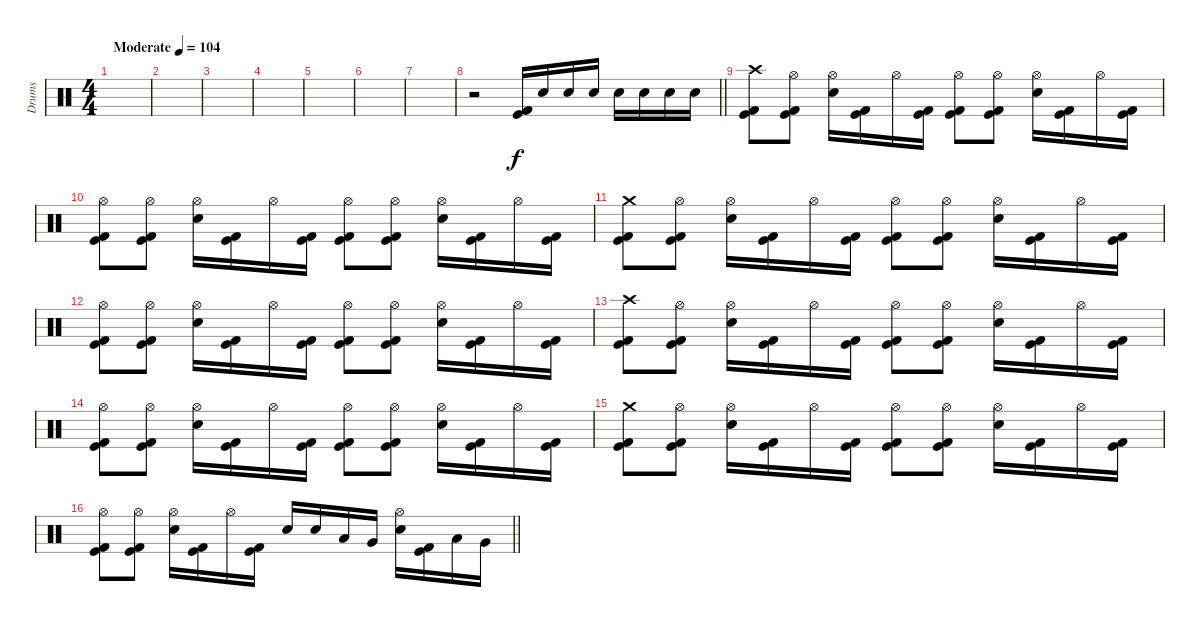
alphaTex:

\track ("Drums" "Drums") {instrument percussion}
\staff {score}
\articulation defaults
\ts (4 4)
\tempo (104 "Moderate")
\clef neutral
\ks c
|
|
|
|
|
|
|
\barLineRight lightlight
r.2 ("Kick (hit)" "Kick (hit) 2").16 "Electric Snare (hit)".16 "Electric Snare (hit)".16 "Electric Snare (hit)".16 "Electric Snare (hit)".16 "Electric Snare (hit)".16 "Electric Snare (hit)".16 "Electric Snare (hit)".16 |
\section ("" "")
("Crash high (hit)" "Kick (hit)" "Kick (hit) 2").8 ("Hi-Hat (open)" "Kick (hit)" "Kick (hit) 2").8 ("Hi-Hat (open)" "Electric Snare (hit)").16 ("Kick (hit)" "Kick (hit) 2").16 "Hi-Hat (open)".16 ("Kick (hit)" "Kick (hit) 2").16 ("Hi-Hat (open)" "Kick (hit)" "Kick (hit) 2").8 ("Hi-Hat (open)" "Kick (hit)" "Kick (hit) 2").8 ("Hi-Hat (open)" "Electric Snare (hit)").16 ("Kick (hit)" "Kick (hit) 2").16 "Hi-Hat (open)".16 ("Kick (hit)" "Kick (hit) 2").16 |
("Hi-Hat (open)" "Kick (hit)" "Kick (hit) 2").8 ("Hi-Hat (open)" "Kick (hit)" "Kick (hit) 2").8 ("Hi-Hat (open)" "Electric Snare (hit)").16 ("Kick (hit)" "Kick (hit) 2").16 "Hi-Hat (open)".16 ("Kick (hit)" "Kick (hit) 2").16 ("Hi-Hat (open)" "Kick (hit)" "Kick (hit) 2").8 ("Hi-Hat (open)" "Kick (hit)" "Kick (hit) 2").8 ("Hi-Hat (open)" "Electric Snare (hit)").16 ("Kick (hit)" "Kick (hit) 2").16 "Hi-Hat (open)".16 ("Kick (hit)" "Kick (hit) 2").16 |
("Crash medium (hit)" "Kick (hit)" "Kick (hit) 2").8 ("Hi-Hat (open)" "Kick (hit)" "Kick (hit) 2").8 ("Hi-Hat (open)" "Electric Snare (hit)").16 ("Kick (hit)" "Kick (hit) 2").16 "Hi-Hat (open)".16 ("Kick (hit)" "Kick (hit) 2").16 ("Hi-Hat (open)" "Kick (hit)" "Kick (hit) 2").8 ("Hi-Hat (open)" "Kick (hit)" "Kick (hit) 2").8 ("Hi-Hat (open)" "Electric Snare (hit)").16 ("Kick (hit)" "Kick (hit) 2").16 "Hi-Hat (open)".16 ("Kick (hit)" "Kick (hit) 2").16 |
("Hi-Hat (open)" "Kick (hit)" "Kick (hit) 2").8 ("Hi-Hat (open)" "Kick (hit)" "Kick (hit) 2").8 ("Hi-Hat (open)" "Electric Snare (hit)").16 ("Kick (hit)" "Kick (hit) 2").16 "Hi-Hat (open)".16 ("Kick (hit)" "Kick (hit) 2").16 ("Hi-Hat (open)" "Kick (hit)" "Kick (hit) 2").8 ("Hi-Hat (open)" "Kick (hit)" "Kick (hit) 2").8 ("Hi-Hat (open)" "Electric Snare (hit)").16 ("Kick (hit)" "Kick (hit) 2").16 "Hi-Hat (open)".16 ("Kick (hit)" "Kick (hit) 2").16 |
("Crash high (hit)" "Kick (hit)" "Kick (hit) 2").8 ("Hi-Hat (open)" "Kick (hit)" "Kick (hit) 2").8 ("Hi-Hat (open)" "Electric Snare (hit)").16 ("Kick (hit)" "Kick (hit) 2").16 "Hi-Hat (open)".16 ("Kick (hit)" "Kick (hit) 2").16 ("Hi-Hat (open)" "Kick (hit)" "Kick (hit) 2").8 ("Hi-Hat (open)" "Kick (hit)" "Kick (hit) 2").8 ("Hi-Hat (open)" "Electric Snare (hit)").16 ("Kick (hit)" "Kick (hit) 2").16 "Hi-Hat (open)".16 ("Kick (hit)" "Kick (hit) 2").16 |
("Hi-Hat (open)" "Kick (hit)" "Kick (hit) 2").8 ("Hi-Hat (open)" "Kick (hit)" "Kick (hit) 2").8 ("Hi-Hat (open)" "Electric Snare (hit)").16 ("Kick (hit)" "Kick (hit) 2").16 "Hi-Hat (open)".16 ("Kick (hit)" "Kick (hit) 2").16 ("Hi-Hat (open)" "Kick (hit)" "Kick (hit) 2").8 ("Hi-Hat (open)" "Kick (hit)" "Kick (hit) 2").8 ("Hi-Hat (open)" "Electric Snare (hit)").16 ("Kick (hit)" "Kick (hit) 2").16 "Hi-Hat (open)".16 ("Kick (hit)" "Kick (hit) 2").16 |
("Crash medium (hit)" "Kick (hit)" "Kick (hit) 2").8 ("Hi-Hat (open)" "Kick (hit)" "Kick (hit) 2").8 ("Hi-Hat (open)" "Electric Snare (hit)").16 ("Kick (hit)" "Kick (hit) 2").16 "Hi-Hat (open)".16 ("Kick (hit)" "Kick (hit) 2").16 ("Hi-Hat (open)" "Kick (hit)" "Kick (hit) 2").8 ("Hi-Hat (open)" "Kick (hit)" "Kick (hit) 2").8 ("Hi-Hat (open)" "Electric Snare (hit)").16 ("Kick (hit)" "Kick (hit) 2").16 "Hi-Hat (open)".16 ("Kick (hit)" "Kick (hit) 2").16 |
\barLineRight lightlight
("Hi-Hat (open)" "Kick (hit)" "Kick (hit) 2").8 ("Hi-Hat (open)" "Kick (hit)" "Kick (hit) 2").8 ("Hi-Hat (open)" "Electric Snare (hit)").16 ("Kick (hit)" "Kick (hit) 2").16 "Hi-Hat (open)".16 ("Kick (hit)" "Kick (hit) 2").16 "Electric Snare (hit)".16 "Electric Snare (hit)".16 "Low Tom (hit)".16 "Very Low Tom (hit)".16 ("Hi-Hat (open)" "Electric Snare (hit)").16 ("Kick (hit)" "Kick (hit) 2").16 "Low Tom (hit)".16 "Very Low Tom (hit)".16
